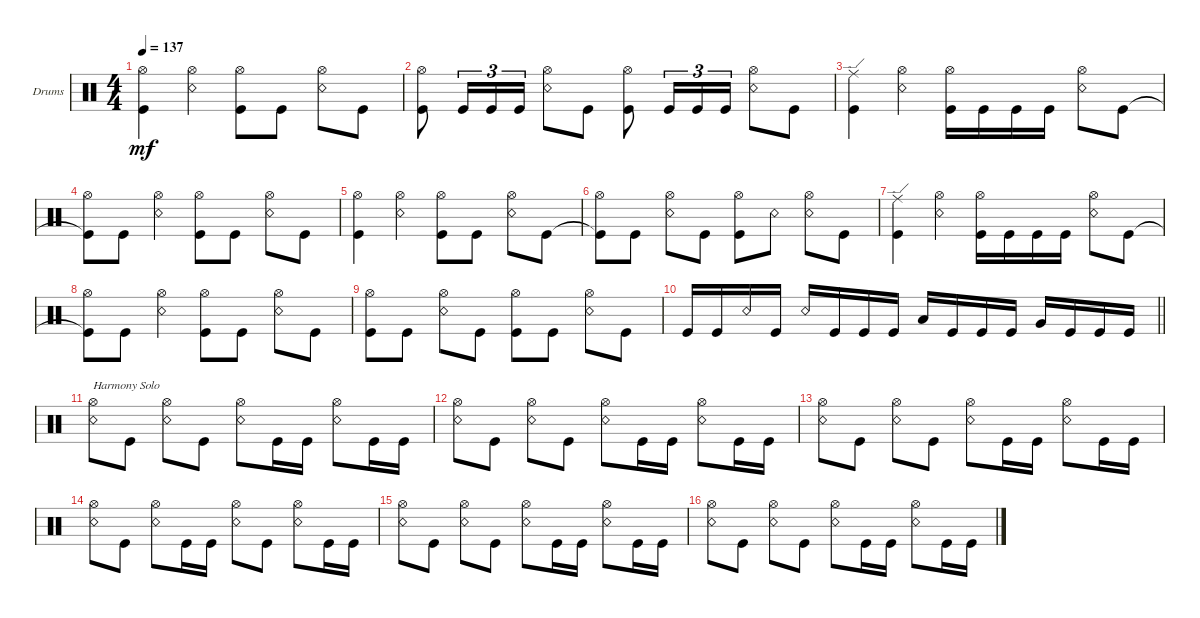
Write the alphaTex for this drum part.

\defaultSystemsLayout 4
\bracketExtendMode groupsimilarinstruments
\firstSystemTrackNameOrientation horizontal
\otherSystemsTrackNameOrientation horizontal
\track ("Drums" "Drums") {instrument percussion}
\staff {score}
\articulation defaults
\ts (4 4)
\tempo 137
\clef neutral
\scale
0.333333
\ks c
("Kick (hit)" "Hi-Hat (open)").4{dy mf} ("Snare (rim shot)" "Hi-Hat (open)").4 ("Kick (hit)" "Hi-Hat (open)").8 "Kick (hit)".8 ("Snare (rim shot)" "Hi-Hat (open)").8 "Kick (hit)".8 |
\scale
0.333333 ("Kick (hit)" "Hi-Hat (open)").8 "Kick (hit)".16{tu (3 2)} "Kick (hit)".16{tu (3 2)} "Kick (hit)".16{tu (3 2)} ("Snare (rim shot)" "Hi-Hat (open)").8 "Kick (hit)".8 ("Kick (hit)" "Hi-Hat (open)").8 "Kick (hit)".16{tu (3 2)} "Kick (hit)".16{tu (3 2)} "Kick (hit)".16{tu (3 2)} ("Snare (rim shot)" "Hi-Hat (open)").8 "Kick (hit)".8 |
\scale
0.333333 ("Kick (hit)" "Ride (edge)").4 ("Snare (rim shot)" "Hi-Hat (open)").4 ("Kick (hit)" "Hi-Hat (open)").16 "Kick (hit)".16 "Kick (hit)".16 "Kick (hit)".16 ("Snare (rim shot)" "Hi-Hat (open)").8 "Kick (hit)".8 |
\scale
0.333333 ("Kick (hit)"{t} "Hi-Hat (open)").8 "Kick (hit)".8 ("Snare (rim shot)" "Hi-Hat (open)").4 ("Kick (hit)" "Hi-Hat (open)").8 "Kick (hit)".8 ("Snare (rim shot)" "Hi-Hat (open)").8 "Kick (hit)".8 |
\scale
0.333333 ("Kick (hit)" "Hi-Hat (open)").4 ("Snare (rim shot)" "Hi-Hat (open)").4 ("Kick (hit)" "Hi-Hat (open)").8 "Kick (hit)".8 ("Snare (rim shot)" "Hi-Hat (open)").8 "Kick (hit)".8 |
\scale
0.333333 ("Kick (hit)"{t} "Hi-Hat (open)").8 "Kick (hit)".8 ("Snare (rim shot)" "Hi-Hat (open)").8 "Kick (hit)".8 ("Kick (hit)" "Hi-Hat (open)").8 "Snare (rim shot)".8 ("Snare (rim shot)" "Hi-Hat (open)").8 "Kick (hit)".8 |
\scale
0.333333 ("Kick (hit)" "Ride (edge)").4 ("Snare (rim shot)" "Hi-Hat (open)").4 ("Kick (hit)" "Hi-Hat (open)").16 "Kick (hit)".16 "Kick (hit)".16 "Kick (hit)".16 ("Snare (rim shot)" "Hi-Hat (open)").8 "Kick (hit)".8 |
\scale
0.333333 ("Kick (hit)"{t} "Hi-Hat (open)").8 "Kick (hit)".8 ("Snare (rim shot)" "Hi-Hat (open)").4 ("Kick (hit)" "Hi-Hat (open)").8 "Kick (hit)".8 ("Snare (rim shot)" "Hi-Hat (open)").8 "Kick (hit)".8 |
\scale
0.333333 ("Kick (hit)" "Hi-Hat (open)").8 "Kick (hit)".8 ("Snare (rim shot)" "Hi-Hat (open)").8 "Kick (hit)".8 ("Kick (hit)" "Hi-Hat (open)").8 "Kick (hit)".8 ("Snare (rim shot)" "Hi-Hat (open)").8 "Kick (hit)".8 |
\scale
0.333333
\barLineRight lightlight "Kick (hit)".16 "Kick (hit)".16 "Snare (rim shot)".16 "Kick (hit)".16 "Snare (rim shot)".16 "Kick (hit)".16 "Kick (hit)".16 "Kick (hit)".16 "Low Tom (hit)".16 "Kick (hit)".16 "Kick (hit)".16 "Kick (hit)".16 "Very Low Tom (hit)".16 "Kick (hit)".16 "Kick (hit)".16 "Kick (hit)".16
|
\scale
0.333333 ("Snare (rim shot)" "Hi-Hat (open)").8{txt "Harmony Solo"} "Kick (hit)".8 ("Snare (rim shot)" "Hi-Hat (open)").8 "Kick (hit)".8 ("Snare (rim shot)" "Hi-Hat (open)").8 "Kick (hit)".16 "Kick (hit)".16 ("Snare (rim shot)" "Hi-Hat (open)").8 "Kick (hit)".16 "Kick (hit)".16 |
\scale
0.333333 ("Snare (rim shot)" "Hi-Hat (open)").8 "Kick (hit)".8 ("Snare (rim shot)" "Hi-Hat (open)").8 "Kick (hit)".8 ("Snare (rim shot)" "Hi-Hat (open)").8 "Kick (hit)".16 "Kick (hit)".16 ("Snare (rim shot)" "Hi-Hat (open)").8 "Kick (hit)".16 "Kick (hit)".16 |
\scale
0.333333 ("Snare (rim shot)" "Hi-Hat (open)").8 "Kick (hit)".8 ("Snare (rim shot)" "Hi-Hat (open)").8 "Kick (hit)".8 ("Snare (rim shot)" "Hi-Hat (open)").8 "Kick (hit)".16 "Kick (hit)".16 ("Snare (rim shot)" "Hi-Hat (open)").8 "Kick (hit)".16 "Kick (hit)".16 |
\scale
0.333333 ("Snare (rim shot)" "Hi-Hat (open)").8 "Kick (hit)".8 ("Snare (rim shot)" "Hi-Hat (open)").8 "Kick (hit)".16 "Kick (hit)".16 ("Snare (rim shot)" "Hi-Hat (open)").8 "Kick (hit)".8 ("Snare (rim shot)" "Hi-Hat (open)").8 "Kick (hit)".16 "Kick (hit)".16 |
\scale
0.333333 ("Snare (rim shot)" "Hi-Hat (open)").8 "Kick (hit)".8 ("Snare (rim shot)" "Hi-Hat (open)").8 "Kick (hit)".8 ("Snare (rim shot)" "Hi-Hat (open)").8 "Kick (hit)".16 "Kick (hit)".16 ("Snare (rim shot)" "Hi-Hat (open)").8 "Kick (hit)".16 "Kick (hit)".16 |
\scale
0.333333 ("Snare (rim shot)" "Hi-Hat (open)").8 "Kick (hit)".8 ("Snare (rim shot)" "Hi-Hat (open)").8 "Kick (hit)".8 ("Snare (rim shot)" "Hi-Hat (open)").8 "Kick (hit)".16 "Kick (hit)".16 ("Snare (rim shot)" "Hi-Hat (open)").8 "Kick (hit)".16 "Kick (hit)".16
